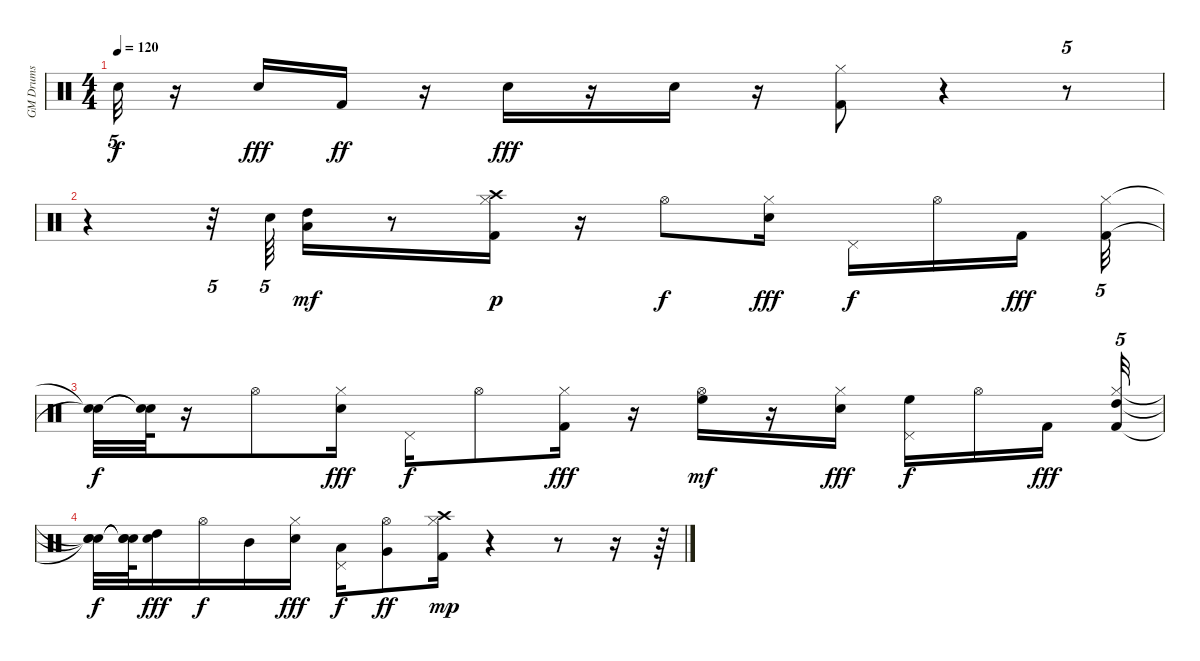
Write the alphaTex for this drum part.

\track ("GM Drums" "GM Drums") {instrument percussion}
\staff {score}
\articulation defaults
\ts (4 4)
\tempo 120
\clef neutral
\ks c "Snare (hit)"{t}.32{tu (5 4) dy f}
r.16 "Electric Snare (hit)".16{dy fff} "Kick (hit) 2".16{dy ff} r.16 "Electric Snare (hit)".16{dy fff} r.16 "Electric Snare (hit)".16 r.16 ("Kick (hit) 2" "Hi-Hat (closed)").8 r.4 r.8{tu (5 4)} |
r.4 r.32{tu (5 4)} "Electric Snare (hit)".64{tu (5 4)} ("High Tom (hit)" "Low Tom (hit)").16{dy mf} r.8 ("Kick (hit) 2" "Hi-Hat (closed)" "Crash high (hit)").16{dy p} r.16 "Hi-Hat (open)".8{dy f} ("Electric Snare (hit)" "Hi-Hat (closed)").16{dy fff} "Pedal Hi-Hat (hit)".16{dy f} "Hi-Hat (open)".16 "Kick (hit) 2".16{dy fff} ("Kick (hit) 2" "Hi-Hat (closed)").32{tu (5 4)} |
("Snare (hit)"{t} "Snare (hit)"{t}).32{dy f} ("Snare (hit)"{t} "Snare (hit)"{t}).64 r.16 "Hi-Hat (open)".8 ("Electric Snare (hit)" "Hi-Hat (closed)").16{dy fff} "Pedal Hi-Hat (hit)".16{dy f} "Hi-Hat (open)".8 ("Kick (hit) 2" "Hi-Hat (closed)").16{dy fff} r.16 ("Hi-Hat (open)" "High Floor Tom (hit)").16{dy mf} r.16 ("Electric Snare (hit)" "Hi-Hat (closed)").16{dy fff} ("Pedal Hi-Hat (hit)" "High Floor Tom (hit)").16{dy f} "Hi-Hat (open)".16 "Kick (hit) 2".16{dy fff} ("Kick (hit) 2" "Hi-Hat (closed)" "High Tom (hit)").32{tu (5 4)} |
("Snare (hit)"{t} "Snare (hit)"{t} "Snare (hit)"{t}).32{dy f} ("Snare (hit)"{t} "Snare (hit)"{t} "Snare (hit)"{t}).64 ("Electric Snare (hit)" "High Tom (hit)").16{dy fff} "Hi-Hat (open)".16{dy f} "Mid Tom (hit)".16 ("Electric Snare (hit)" "Hi-Hat (closed)").16{dy fff} ("Pedal Hi-Hat (hit)" "Low Tom (hit)").16{dy f} ("Very Low Tom (hit)" "Hi-Hat (open)").8{dy ff} ("Kick (hit) 2" "Hi-Hat (closed)" "Crash high (hit)").16{dy mp} r.4 r.8 r.16 r.64
